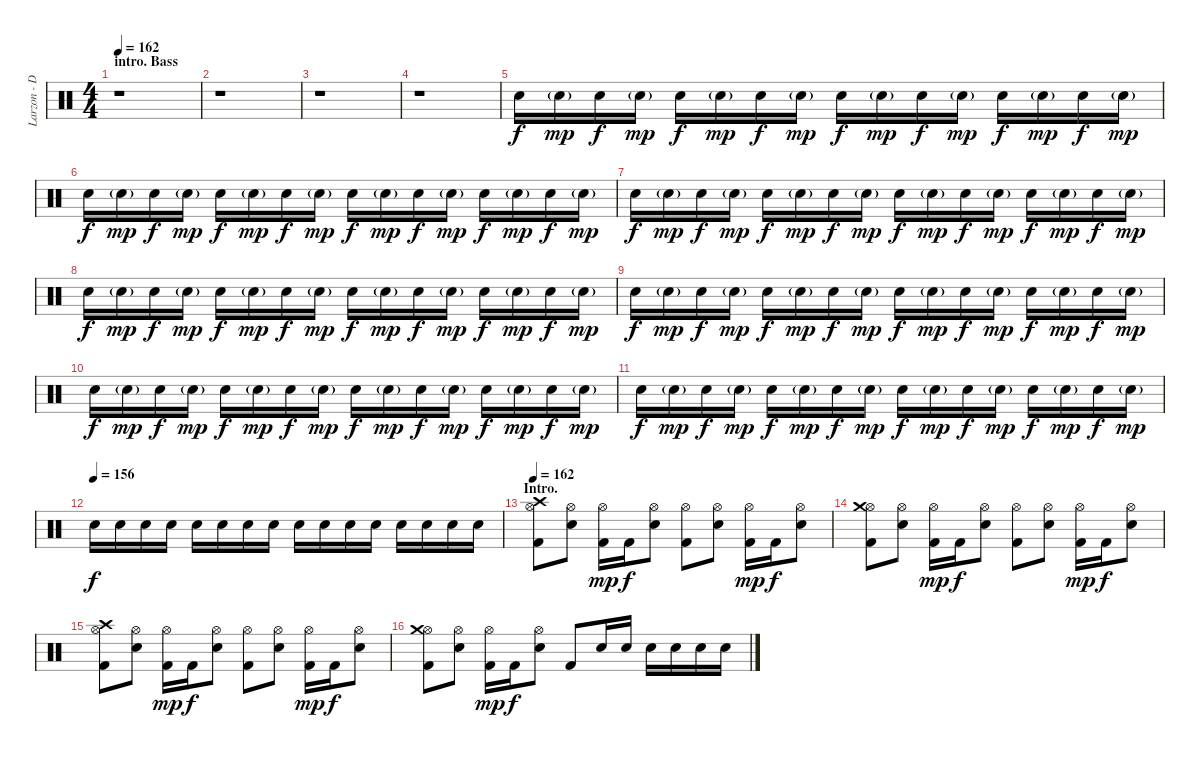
\track ("Larzon - Drums" "Larzon - D") {instrument percussion}
\staff {score}
\articulation defaults
\ts (4 4)
\section ("" "intro. Bass")
\tempo 162
\clef neutral
\ks c
r.1{dy f} |
r.1 |
r.1 |
r.1 |
"Snare (hit) 2".16 "Snare (hit) 2"{g}.16{dy mp} "Snare (hit) 2".16{dy f} "Snare (hit) 2"{g}.16{dy mp} "Snare (hit) 2".16{dy f} "Snare (hit) 2"{g}.16{dy mp} "Snare (hit) 2".16{dy f} "Snare (hit) 2"{g}.16{dy mp} "Snare (hit) 2".16{dy f} "Snare (hit) 2"{g}.16{dy mp} "Snare (hit) 2".16{dy f} "Snare (hit) 2"{g}.16{dy mp} "Snare (hit) 2".16{dy f} "Snare (hit) 2"{g}.16{dy mp} "Snare (hit) 2".16{dy f} "Snare (hit) 2"{g}.16{dy mp} |
"Snare (hit) 2".16{dy f} "Snare (hit) 2"{g}.16{dy mp} "Snare (hit) 2".16{dy f} "Snare (hit) 2"{g}.16{dy mp} "Snare (hit) 2".16{dy f} "Snare (hit) 2"{g}.16{dy mp} "Snare (hit) 2".16{dy f} "Snare (hit) 2"{g}.16{dy mp} "Snare (hit) 2".16{dy f} "Snare (hit) 2"{g}.16{dy mp} "Snare (hit) 2".16{dy f} "Snare (hit) 2"{g}.16{dy mp} "Snare (hit) 2".16{dy f} "Snare (hit) 2"{g}.16{dy mp} "Snare (hit) 2".16{dy f} "Snare (hit) 2"{g}.16{dy mp} |
"Snare (hit) 2".16{dy f} "Snare (hit) 2"{g}.16{dy mp} "Snare (hit) 2".16{dy f} "Snare (hit) 2"{g}.16{dy mp} "Snare (hit) 2".16{dy f} "Snare (hit) 2"{g}.16{dy mp} "Snare (hit) 2".16{dy f} "Snare (hit) 2"{g}.16{dy mp} "Snare (hit) 2".16{dy f} "Snare (hit) 2"{g}.16{dy mp} "Snare (hit) 2".16{dy f} "Snare (hit) 2"{g}.16{dy mp} "Snare (hit) 2".16{dy f} "Snare (hit) 2"{g}.16{dy mp} "Snare (hit) 2".16{dy f} "Snare (hit) 2"{g}.16{dy mp} |
"Snare (hit) 2".16{dy f} "Snare (hit) 2"{g}.16{dy mp} "Snare (hit) 2".16{dy f} "Snare (hit) 2"{g}.16{dy mp} "Snare (hit) 2".16{dy f} "Snare (hit) 2"{g}.16{dy mp} "Snare (hit) 2".16{dy f} "Snare (hit) 2"{g}.16{dy mp} "Snare (hit) 2".16{dy f} "Snare (hit) 2"{g}.16{dy mp} "Snare (hit) 2".16{dy f} "Snare (hit) 2"{g}.16{dy mp} "Snare (hit) 2".16{dy f} "Snare (hit) 2"{g}.16{dy mp} "Snare (hit) 2".16{dy f} "Snare (hit) 2"{g}.16{dy mp} |
"Snare (hit) 2".16{dy f} "Snare (hit) 2"{g}.16{dy mp} "Snare (hit) 2".16{dy f} "Snare (hit) 2"{g}.16{dy mp} "Snare (hit) 2".16{dy f} "Snare (hit) 2"{g}.16{dy mp} "Snare (hit) 2".16{dy f} "Snare (hit) 2"{g}.16{dy mp} "Snare (hit) 2".16{dy f} "Snare (hit) 2"{g}.16{dy mp} "Snare (hit) 2".16{dy f} "Snare (hit) 2"{g}.16{dy mp} "Snare (hit) 2".16{dy f} "Snare (hit) 2"{g}.16{dy mp} "Snare (hit) 2".16{dy f} "Snare (hit) 2"{g}.16{dy mp} |
"Snare (hit) 2".16{dy f} "Snare (hit) 2"{g}.16{dy mp} "Snare (hit) 2".16{dy f} "Snare (hit) 2"{g}.16{dy mp} "Snare (hit) 2".16{dy f} "Snare (hit) 2"{g}.16{dy mp} "Snare (hit) 2".16{dy f} "Snare (hit) 2"{g}.16{dy mp} "Snare (hit) 2".16{dy f} "Snare (hit) 2"{g}.16{dy mp} "Snare (hit) 2".16{dy f} "Snare (hit) 2"{g}.16{dy mp} "Snare (hit) 2".16{dy f} "Snare (hit) 2"{g}.16{dy mp} "Snare (hit) 2".16{dy f} "Snare (hit) 2"{g}.16{dy mp} |
"Snare (hit) 2".16{dy f} "Snare (hit) 2"{g}.16{dy mp} "Snare (hit) 2".16{dy f} "Snare (hit) 2"{g}.16{dy mp} "Snare (hit) 2".16{dy f} "Snare (hit) 2"{g}.16{dy mp} "Snare (hit) 2".16{dy f} "Snare (hit) 2"{g}.16{dy mp} "Snare (hit) 2".16{dy f} "Snare (hit) 2"{g}.16{dy mp} "Snare (hit) 2".16{dy f} "Snare (hit) 2"{g}.16{dy mp} "Snare (hit) 2".16{dy f} "Snare (hit) 2"{g}.16{dy mp} "Snare (hit) 2".16{dy f} "Snare (hit) 2"{g}.16{dy mp} |
\tempo (156)
"Snare (hit) 2".16{dy f} "Snare (hit) 2".16 "Snare (hit) 2".16 "Snare (hit) 2".16 "Snare (hit) 2".16 "Snare (hit) 2".16 "Snare (hit) 2".16 "Snare (hit) 2".16 "Snare (hit) 2".16 "Snare (hit) 2".16 "Snare (hit) 2".16 "Snare (hit) 2".16 "Snare (hit) 2".16 "Snare (hit) 2".16 "Snare (hit) 2".16 "Snare (hit) 2".16 |
\section ("" "Intro.")
\tempo 162
("Kick (hit) 2" "Hi-Hat (open)" "Crash high (hit)").8 ("Snare (hit) 2" "Hi-Hat (open)").8 ("Kick (hit) 2" "Hi-Hat (open)").16{dy mp} "Kick (hit) 2".16{dy f} ("Snare (hit) 2" "Hi-Hat (open)").8 ("Kick (hit) 2" "Hi-Hat (open)").8 ("Snare (hit) 2" "Hi-Hat (open)").8 ("Kick (hit) 2" "Hi-Hat (open)").16{dy mp} "Kick (hit) 2".16{dy f} ("Snare (hit) 2" "Hi-Hat (open)").8 |
("Kick (hit) 2" "Hi-Hat (open)" "Crash medium (hit)").8 ("Snare (hit) 2" "Hi-Hat (open)").8 ("Kick (hit) 2" "Hi-Hat (open)").16{dy mp} "Kick (hit) 2".16{dy f} ("Snare (hit) 2" "Hi-Hat (open)").8 ("Kick (hit) 2" "Hi-Hat (open)").8 ("Snare (hit) 2" "Hi-Hat (open)").8 ("Kick (hit) 2" "Hi-Hat (open)").16{dy mp} "Kick (hit) 2".16{dy f} ("Snare (hit) 2" "Hi-Hat (open)").8 |
("Kick (hit) 2" "Hi-Hat (open)" "Crash high (hit)").8 ("Snare (hit) 2" "Hi-Hat (open)").8 ("Kick (hit) 2" "Hi-Hat (open)").16{dy mp} "Kick (hit) 2".16{dy f} ("Snare (hit) 2" "Hi-Hat (open)").8 ("Kick (hit) 2" "Hi-Hat (open)").8 ("Snare (hit) 2" "Hi-Hat (open)").8 ("Kick (hit) 2" "Hi-Hat (open)").16{dy mp} "Kick (hit) 2".16{dy f} ("Snare (hit) 2" "Hi-Hat (open)").8 |
("Kick (hit) 2" "Hi-Hat (open)" "Crash medium (hit)").8 ("Snare (hit) 2" "Hi-Hat (open)").8 ("Kick (hit) 2" "Hi-Hat (open)").16{dy mp} "Kick (hit) 2".16{dy f} ("Snare (hit) 2" "Hi-Hat (open)").8 "Kick (hit) 2".8 "Snare (hit) 2".16 "Snare (hit) 2".16 "Snare (hit) 2".16 "Snare (hit) 2".16 "Snare (hit) 2".16 "Snare (hit) 2".16
